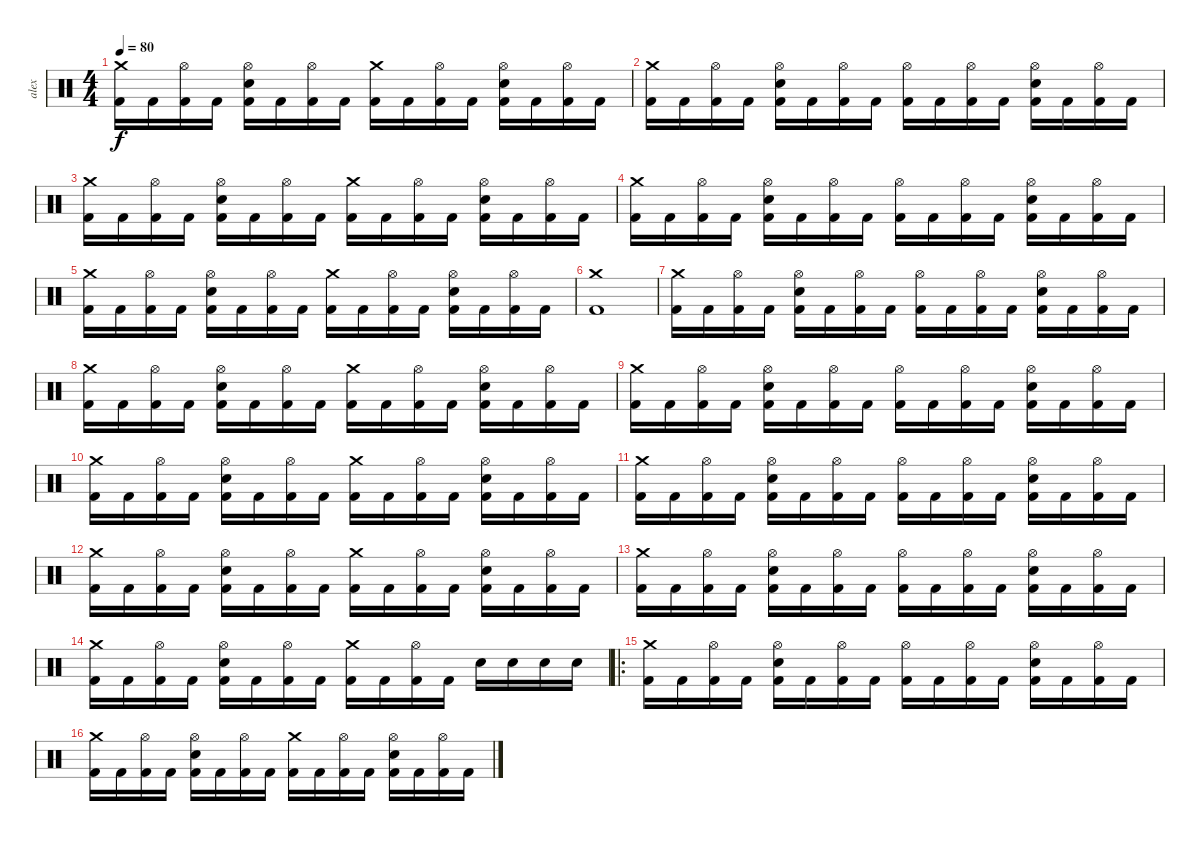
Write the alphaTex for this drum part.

\track ("alex" "alex") {instrument percussion}
\staff {score}
\articulation defaults
\ts (4 4)
\tempo 80
\clef neutral
\ks c
("Kick (hit) 2" "Crash medium (hit)").16{dy f} "Kick (hit) 2".16 ("Kick (hit) 2" "Hi-Hat (open)").16 "Kick (hit) 2".16 ("Snare (hit) 2" "Kick (hit) 2" "Hi-Hat (open)").16 "Kick (hit) 2".16 ("Kick (hit) 2" "Hi-Hat (open)").16 "Kick (hit) 2".16 ("Kick (hit) 2" "Crash medium (hit)").16 "Kick (hit) 2".16 ("Kick (hit) 2" "Hi-Hat (open)").16 "Kick (hit) 2".16 ("Snare (hit) 2" "Kick (hit) 2" "Hi-Hat (open)").16 "Kick (hit) 2".16 ("Kick (hit) 2" "Hi-Hat (open)").16 "Kick (hit) 2".16 |
("Kick (hit) 2" "Crash medium (hit)").16 "Kick (hit) 2".16 ("Kick (hit) 2" "Hi-Hat (open)").16 "Kick (hit) 2".16 ("Snare (hit) 2" "Kick (hit) 2" "Hi-Hat (open)").16 "Kick (hit) 2".16 ("Kick (hit) 2" "Hi-Hat (open)").16 "Kick (hit) 2".16 ("Kick (hit) 2" "Hi-Hat (open)").16 "Kick (hit) 2".16 ("Kick (hit) 2" "Hi-Hat (open)").16 "Kick (hit) 2".16 ("Snare (hit) 2" "Kick (hit) 2" "Hi-Hat (open)").16 "Kick (hit) 2".16 ("Kick (hit) 2" "Hi-Hat (open)").16 "Kick (hit) 2".16 |
("Kick (hit) 2" "Crash medium (hit)").16 "Kick (hit) 2".16 ("Kick (hit) 2" "Hi-Hat (open)").16 "Kick (hit) 2".16 ("Snare (hit) 2" "Kick (hit) 2" "Hi-Hat (open)").16 "Kick (hit) 2".16 ("Kick (hit) 2" "Hi-Hat (open)").16 "Kick (hit) 2".16 ("Kick (hit) 2" "Crash medium (hit)").16 "Kick (hit) 2".16 ("Kick (hit) 2" "Hi-Hat (open)").16 "Kick (hit) 2".16 ("Snare (hit) 2" "Kick (hit) 2" "Hi-Hat (open)").16 "Kick (hit) 2".16 ("Kick (hit) 2" "Hi-Hat (open)").16 "Kick (hit) 2".16 |
("Kick (hit) 2" "Crash medium (hit)").16 "Kick (hit) 2".16 ("Kick (hit) 2" "Hi-Hat (open)").16 "Kick (hit) 2".16 ("Snare (hit) 2" "Kick (hit) 2" "Hi-Hat (open)").16 "Kick (hit) 2".16 ("Kick (hit) 2" "Hi-Hat (open)").16 "Kick (hit) 2".16 ("Kick (hit) 2" "Hi-Hat (open)").16 "Kick (hit) 2".16 ("Kick (hit) 2" "Hi-Hat (open)").16 "Kick (hit) 2".16 ("Snare (hit) 2" "Kick (hit) 2" "Hi-Hat (open)").16 "Kick (hit) 2".16 ("Kick (hit) 2" "Hi-Hat (open)").16 "Kick (hit) 2".16 |
("Kick (hit) 2" "Crash medium (hit)").16 "Kick (hit) 2".16 ("Kick (hit) 2" "Hi-Hat (open)").16 "Kick (hit) 2".16 ("Snare (hit) 2" "Kick (hit) 2" "Hi-Hat (open)").16 "Kick (hit) 2".16 ("Kick (hit) 2" "Hi-Hat (open)").16 "Kick (hit) 2".16 ("Kick (hit) 2" "Crash medium (hit)").16 "Kick (hit) 2".16 ("Kick (hit) 2" "Hi-Hat (open)").16 "Kick (hit) 2".16 ("Snare (hit) 2" "Kick (hit) 2" "Hi-Hat (open)").16 "Kick (hit) 2".16 ("Kick (hit) 2" "Hi-Hat (open)").16 "Kick (hit) 2".16 |
("Crash medium (hit)" "Kick (hit) 2").1 |
("Kick (hit) 2" "Crash medium (hit)").16 "Kick (hit) 2".16 ("Kick (hit) 2" "Hi-Hat (open)").16 "Kick (hit) 2".16 ("Snare (hit) 2" "Kick (hit) 2" "Hi-Hat (open)").16 "Kick (hit) 2".16 ("Kick (hit) 2" "Hi-Hat (open)").16 "Kick (hit) 2".16 ("Kick (hit) 2" "Hi-Hat (open)").16 "Kick (hit) 2".16 ("Kick (hit) 2" "Hi-Hat (open)").16 "Kick (hit) 2".16 ("Snare (hit) 2" "Kick (hit) 2" "Hi-Hat (open)").16 "Kick (hit) 2".16 ("Kick (hit) 2" "Hi-Hat (open)").16 "Kick (hit) 2".16 |
("Kick (hit) 2" "Crash medium (hit)").16 "Kick (hit) 2".16 ("Kick (hit) 2" "Hi-Hat (open)").16 "Kick (hit) 2".16 ("Snare (hit) 2" "Kick (hit) 2" "Hi-Hat (open)").16 "Kick (hit) 2".16 ("Kick (hit) 2" "Hi-Hat (open)").16 "Kick (hit) 2".16 ("Kick (hit) 2" "Crash medium (hit)").16 "Kick (hit) 2".16 ("Kick (hit) 2" "Hi-Hat (open)").16 "Kick (hit) 2".16 ("Snare (hit) 2" "Kick (hit) 2" "Hi-Hat (open)").16 "Kick (hit) 2".16 ("Kick (hit) 2" "Hi-Hat (open)").16 "Kick (hit) 2".16 |
("Kick (hit) 2" "Crash medium (hit)").16 "Kick (hit) 2".16 ("Kick (hit) 2" "Hi-Hat (open)").16 "Kick (hit) 2".16 ("Snare (hit) 2" "Kick (hit) 2" "Hi-Hat (open)").16 "Kick (hit) 2".16 ("Kick (hit) 2" "Hi-Hat (open)").16 "Kick (hit) 2".16 ("Kick (hit) 2" "Hi-Hat (open)").16 "Kick (hit) 2".16 ("Kick (hit) 2" "Hi-Hat (open)").16 "Kick (hit) 2".16 ("Snare (hit) 2" "Kick (hit) 2" "Hi-Hat (open)").16 "Kick (hit) 2".16 ("Kick (hit) 2" "Hi-Hat (open)").16 "Kick (hit) 2".16 |
("Kick (hit) 2" "Crash medium (hit)").16 "Kick (hit) 2".16 ("Kick (hit) 2" "Hi-Hat (open)").16 "Kick (hit) 2".16 ("Snare (hit) 2" "Kick (hit) 2" "Hi-Hat (open)").16 "Kick (hit) 2".16 ("Kick (hit) 2" "Hi-Hat (open)").16 "Kick (hit) 2".16 ("Kick (hit) 2" "Crash medium (hit)").16 "Kick (hit) 2".16 ("Kick (hit) 2" "Hi-Hat (open)").16 "Kick (hit) 2".16 ("Snare (hit) 2" "Kick (hit) 2" "Hi-Hat (open)").16 "Kick (hit) 2".16 ("Kick (hit) 2" "Hi-Hat (open)").16 "Kick (hit) 2".16 |
("Kick (hit) 2" "Crash medium (hit)").16 "Kick (hit) 2".16 ("Kick (hit) 2" "Hi-Hat (open)").16 "Kick (hit) 2".16 ("Snare (hit) 2" "Kick (hit) 2" "Hi-Hat (open)").16 "Kick (hit) 2".16 ("Kick (hit) 2" "Hi-Hat (open)").16 "Kick (hit) 2".16 ("Kick (hit) 2" "Hi-Hat (open)").16 "Kick (hit) 2".16 ("Kick (hit) 2" "Hi-Hat (open)").16 "Kick (hit) 2".16 ("Snare (hit) 2" "Kick (hit) 2" "Hi-Hat (open)").16 "Kick (hit) 2".16 ("Kick (hit) 2" "Hi-Hat (open)").16 "Kick (hit) 2".16 |
("Kick (hit) 2" "Crash medium (hit)").16 "Kick (hit) 2".16 ("Kick (hit) 2" "Hi-Hat (open)").16 "Kick (hit) 2".16 ("Snare (hit) 2" "Kick (hit) 2" "Hi-Hat (open)").16 "Kick (hit) 2".16 ("Kick (hit) 2" "Hi-Hat (open)").16 "Kick (hit) 2".16 ("Kick (hit) 2" "Crash medium (hit)").16 "Kick (hit) 2".16 ("Kick (hit) 2" "Hi-Hat (open)").16 "Kick (hit) 2".16 ("Snare (hit) 2" "Kick (hit) 2" "Hi-Hat (open)").16 "Kick (hit) 2".16 ("Kick (hit) 2" "Hi-Hat (open)").16 "Kick (hit) 2".16 |
("Kick (hit) 2" "Crash medium (hit)").16 "Kick (hit) 2".16 ("Kick (hit) 2" "Hi-Hat (open)").16 "Kick (hit) 2".16 ("Snare (hit) 2" "Kick (hit) 2" "Hi-Hat (open)").16 "Kick (hit) 2".16 ("Kick (hit) 2" "Hi-Hat (open)").16 "Kick (hit) 2".16 ("Kick (hit) 2" "Hi-Hat (open)").16 "Kick (hit) 2".16 ("Kick (hit) 2" "Hi-Hat (open)").16 "Kick (hit) 2".16 ("Snare (hit) 2" "Kick (hit) 2" "Hi-Hat (open)").16 "Kick (hit) 2".16 ("Kick (hit) 2" "Hi-Hat (open)").16 "Kick (hit) 2".16 |
("Kick (hit) 2" "Crash medium (hit)").16 "Kick (hit) 2".16 ("Kick (hit) 2" "Hi-Hat (open)").16 "Kick (hit) 2".16 ("Snare (hit) 2" "Kick (hit) 2" "Hi-Hat (open)").16 "Kick (hit) 2".16 ("Kick (hit) 2" "Hi-Hat (open)").16 "Kick (hit) 2".16 ("Kick (hit) 2" "Crash medium (hit)").16 "Kick (hit) 2".16 ("Kick (hit) 2" "Hi-Hat (open)").16 "Kick (hit) 2".16 "Snare (hit) 2".16 "Snare (hit) 2".16 "Snare (hit) 2".16 "Snare (hit) 2".16 |
\ro
("Kick (hit) 2" "Crash medium (hit)").16 "Kick (hit) 2".16 ("Kick (hit) 2" "Hi-Hat (open)").16 "Kick (hit) 2".16 ("Snare (hit) 2" "Kick (hit) 2" "Hi-Hat (open)").16 "Kick (hit) 2".16 ("Kick (hit) 2" "Hi-Hat (open)").16 "Kick (hit) 2".16 ("Kick (hit) 2" "Hi-Hat (open)").16 "Kick (hit) 2".16 ("Kick (hit) 2" "Hi-Hat (open)").16 "Kick (hit) 2".16 ("Snare (hit) 2" "Kick (hit) 2" "Hi-Hat (open)").16 "Kick (hit) 2".16 ("Kick (hit) 2" "Hi-Hat (open)").16 "Kick (hit) 2".16 |
("Kick (hit) 2" "Crash medium (hit)").16 "Kick (hit) 2".16 ("Kick (hit) 2" "Hi-Hat (open)").16 "Kick (hit) 2".16 ("Snare (hit) 2" "Kick (hit) 2" "Hi-Hat (open)").16 "Kick (hit) 2".16 ("Kick (hit) 2" "Hi-Hat (open)").16 "Kick (hit) 2".16 ("Kick (hit) 2" "Crash medium (hit)").16 "Kick (hit) 2".16 ("Kick (hit) 2" "Hi-Hat (open)").16 "Kick (hit) 2".16 ("Snare (hit) 2" "Kick (hit) 2" "Hi-Hat (open)").16 "Kick (hit) 2".16 ("Kick (hit) 2" "Hi-Hat (open)").16 "Kick (hit) 2".16
